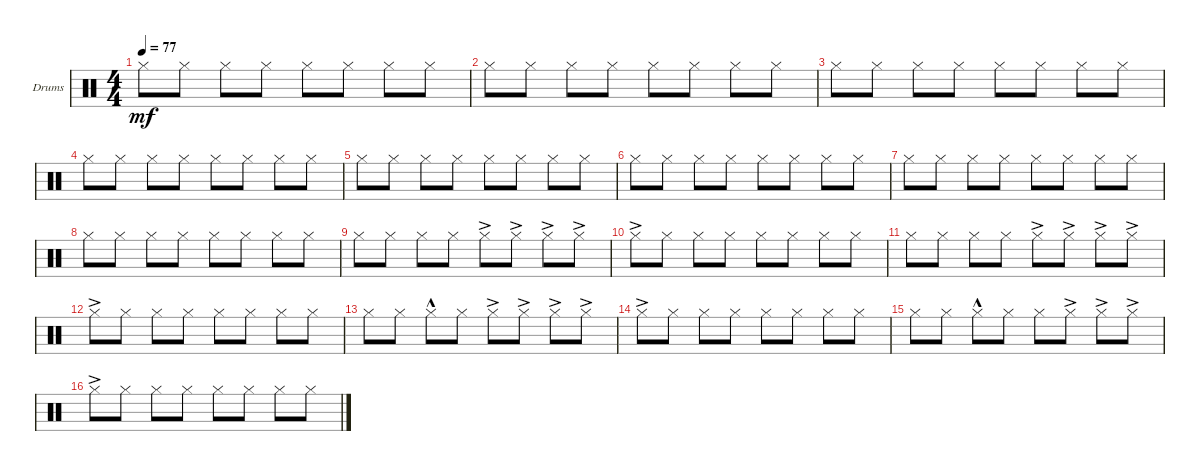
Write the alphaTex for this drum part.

\bracketExtendMode groupsimilarinstruments
\firstSystemTrackNameOrientation horizontal
\otherSystemsTrackNameOrientation horizontal
\track ("Drumkit Гурьянов" "Drums") {instrument percussion}
\staff {score}
\articulation defaults
\ts (4 4)
\tempo 77
\clef neutral
\scale
0.333333
\ks c "Hi-Hat (closed)".8{dy mf} "Hi-Hat (closed)".8 "Hi-Hat (closed)".8 "Hi-Hat (closed)".8 "Hi-Hat (closed)".8 "Hi-Hat (closed)".8 "Hi-Hat (closed)".8 "Hi-Hat (closed)".8
|
\scale
0.333333 "Hi-Hat (closed)".8 "Hi-Hat (closed)".8 "Hi-Hat (closed)".8 "Hi-Hat (closed)".8 "Hi-Hat (closed)".8 "Hi-Hat (closed)".8 "Hi-Hat (closed)".8 "Hi-Hat (closed)".8 |
\scale
0.333333 "Hi-Hat (closed)".8 "Hi-Hat (closed)".8 "Hi-Hat (closed)".8 "Hi-Hat (closed)".8 "Hi-Hat (closed)".8 "Hi-Hat (closed)".8 "Hi-Hat (closed)".8 "Hi-Hat (closed)".8 |
\scale
0.333333 "Hi-Hat (closed)".8 "Hi-Hat (closed)".8 "Hi-Hat (closed)".8 "Hi-Hat (closed)".8 "Hi-Hat (closed)".8 "Hi-Hat (closed)".8 "Hi-Hat (closed)".8 "Hi-Hat (closed)".8 |
\scale
0.333333 "Hi-Hat (closed)".8 "Hi-Hat (closed)".8 "Hi-Hat (closed)".8 "Hi-Hat (closed)".8 "Hi-Hat (closed)".8 "Hi-Hat (closed)".8 "Hi-Hat (closed)".8 "Hi-Hat (closed)".8 |
\scale
0.333333 "Hi-Hat (closed)".8 "Hi-Hat (closed)".8 "Hi-Hat (closed)".8 "Hi-Hat (closed)".8 "Hi-Hat (closed)".8 "Hi-Hat (closed)".8 "Hi-Hat (closed)".8 "Hi-Hat (closed)".8 |
\scale
0.333333 "Hi-Hat (closed)".8 "Hi-Hat (closed)".8 "Hi-Hat (closed)".8 "Hi-Hat (closed)".8 "Hi-Hat (closed)".8 "Hi-Hat (closed)".8 "Hi-Hat (closed)".8 "Hi-Hat (closed)".8 |
\scale
0.333333 "Hi-Hat (closed)".8 "Hi-Hat (closed)".8 "Hi-Hat (closed)".8 "Hi-Hat (closed)".8 "Hi-Hat (closed)".8 "Hi-Hat (closed)".8 "Hi-Hat (closed)".8 "Hi-Hat (closed)".8 |
\scale
0.333333 "Hi-Hat (closed)".8 "Hi-Hat (closed)".8 "Hi-Hat (closed)".8 "Hi-Hat (closed)".8 "Hi-Hat (closed)"{ac}.8 "Hi-Hat (closed)"{ac}.8 "Hi-Hat (closed)"{ac}.8 "Hi-Hat (closed)"{ac}.8 |
\scale
0.333333 "Hi-Hat (closed)"{ac}.8 "Hi-Hat (closed)".8 "Hi-Hat (closed)".8 "Hi-Hat (closed)".8 "Hi-Hat (closed)".8 "Hi-Hat (closed)".8 "Hi-Hat (closed)".8 "Hi-Hat (closed)".8 |
\scale
0.333333 "Hi-Hat (closed)".8 "Hi-Hat (closed)".8 "Hi-Hat (closed)".8 "Hi-Hat (closed)".8 "Hi-Hat (closed)"{ac}.8 "Hi-Hat (closed)"{ac}.8 "Hi-Hat (closed)"{ac}.8 "Hi-Hat (closed)"{ac}.8 |
\scale
0.333333 "Hi-Hat (closed)"{ac}.8 "Hi-Hat (closed)".8 "Hi-Hat (closed)".8 "Hi-Hat (closed)".8 "Hi-Hat (closed)".8 "Hi-Hat (closed)".8 "Hi-Hat (closed)".8 "Hi-Hat (closed)".8 |
\scale
0.333333 "Hi-Hat (closed)".8 "Hi-Hat (closed)".8 "Hi-Hat (closed)"{hac}.8 "Hi-Hat (closed)".8 "Hi-Hat (closed)"{ac}.8 "Hi-Hat (closed)"{ac}.8 "Hi-Hat (closed)"{ac}.8 "Hi-Hat (closed)"{ac}.8 |
\scale
0.333333 "Hi-Hat (closed)"{ac}.8 "Hi-Hat (closed)".8 "Hi-Hat (closed)".8 "Hi-Hat (closed)".8 "Hi-Hat (closed)".8 "Hi-Hat (closed)".8 "Hi-Hat (closed)".8 "Hi-Hat (closed)".8 |
\scale
0.333333 "Hi-Hat (closed)".8 "Hi-Hat (closed)".8 "Hi-Hat (closed)"{hac}.8 "Hi-Hat (closed)".8 "Hi-Hat (closed)".8 "Hi-Hat (closed)"{ac}.8 "Hi-Hat (closed)"{ac}.8 "Hi-Hat (closed)"{ac}.8 |
\scale
0.333333 "Hi-Hat (closed)"{ac}.8 "Hi-Hat (closed)".8 "Hi-Hat (closed)".8 "Hi-Hat (closed)".8 "Hi-Hat (closed)".8 "Hi-Hat (closed)".8 "Hi-Hat (closed)".8 "Hi-Hat (closed)".8
